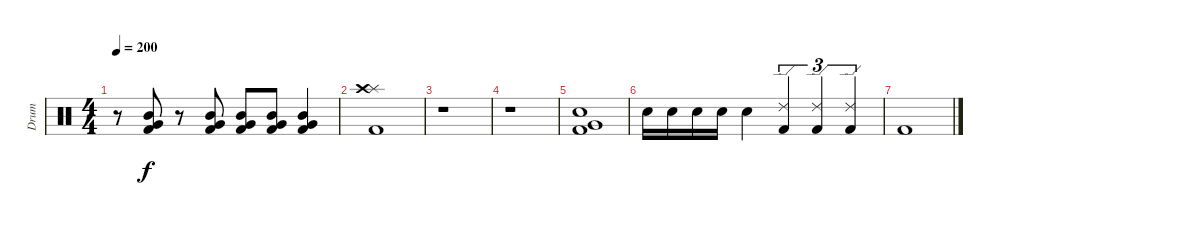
\track ("Drum" "Drum") {instrument percussion}
\staff {score}
\articulation defaults
\ts (4 4)
\tempo 200
\clef neutral
\ks c
r.8{dy f} ("Kick (hit) 2" "Very Low Tom (hit)" "Mid Tom (hit)").8 r.8 ("Kick (hit) 2" "Very Low Tom (hit)" "Mid Tom (hit)").8 ("Kick (hit) 2" "Very Low Tom (hit)" "Mid Tom (hit)").8 ("Kick (hit) 2" "Very Low Tom (hit)" "Mid Tom (hit)").8 ("Kick (hit) 2" "Very Low Tom (hit)" "Mid Tom (hit)").4 |
("Kick (hit) 2" "Splash (hit)" "Crash high (hit)").1 |
r.1 |
r.1 |
("Kick (hit) 2" "Snare (hit) 2" "Very Low Tom (hit)").1 |
"Snare (hit) 2".16 "Snare (hit) 2".16 "Snare (hit) 2".16 "Snare (hit) 2".16 "Snare (hit) 2".4 ("Kick (hit) 2" "Ride (edge) 2").4{tu (3 2)} ("Kick (hit) 2" "Ride (edge) 2").4{tu (3 2)} ("Kick (hit) 2" "Ride (edge) 2").4{tu (3 2)} |
"Kick (hit) 2".1
